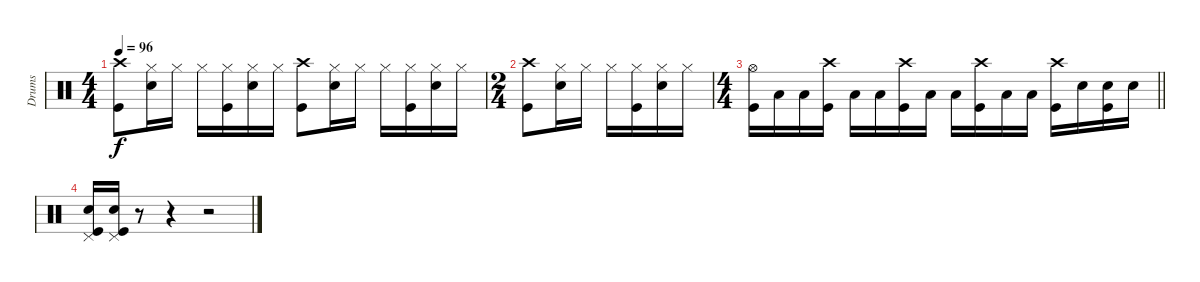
\track ("Drums" "Drums") {instrument percussion}
\staff {score}
\articulation defaults
\ts (4 4)
\tempo 96
\clef neutral
\ks c
("Crash high (hit)" "Kick (hit)").8{dy f} ("Hi-Hat (closed)" "Snare (hit) 2").16 "Hi-Hat (closed)".16 "Hi-Hat (closed)".16 ("Hi-Hat (closed)" "Kick (hit)").16 ("Hi-Hat (closed)" "Snare (hit) 2").16 "Hi-Hat (closed)".16 ("Crash high (hit)" "Kick (hit)").8 ("Hi-Hat (closed)" "Snare (hit) 2").16 "Hi-Hat (closed)".16 "Hi-Hat (closed)".16 ("Hi-Hat (closed)" "Kick (hit)").16 ("Hi-Hat (closed)" "Snare (hit) 2").16 "Hi-Hat (closed)".16 |
\ts (2 4)
("Crash high (hit)" "Kick (hit)").8 ("Hi-Hat (closed)" "Snare (hit) 2").16 "Hi-Hat (closed)".16 "Hi-Hat (closed)".16 ("Hi-Hat (closed)" "Kick (hit)").16 ("Hi-Hat (closed)" "Snare (hit) 2").16 "Hi-Hat (closed)".16 |
\ts (4 4)
\barLineRight lightlight
("Hi-Hat (open)" "Kick (hit)").16 "Low Tom (hit)".16 "Low Tom (hit)".16 ("Crash high (hit)" "Kick (hit)").16 "Low Tom (hit)".16 "Low Tom (hit)".16 ("Crash high (hit)" "Kick (hit)").16 "Low Tom (hit)".16 "Low Tom (hit)".16 ("Crash high (hit)" "Kick (hit)").16 "Low Tom (hit)".16 "Low Tom (hit)".16 ("Crash high (hit)" "Kick (hit)").16 "Snare (hit) 2".16 ("Snare (hit) 2" "Kick (hit)").16 "Snare (hit) 2".16 |
("Pedal Hi-Hat (hit)" "Snare (hit) 2" "Kick (hit)").16 ("Pedal Hi-Hat (hit)" "Snare (hit) 2" "Kick (hit)").16 r.8 r.4 r.2
